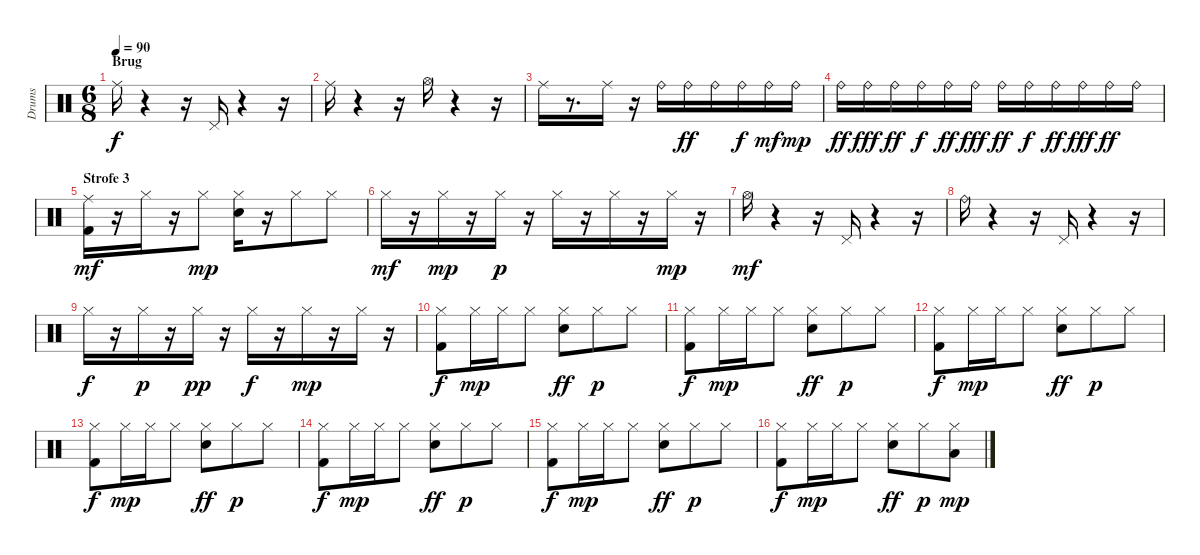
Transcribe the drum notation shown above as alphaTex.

\track ("Drums" "Drums") {instrument percussion}
\staff {score}
\articulation defaults
\ts (6 8)
\section ("" "Brug")
\tempo 90
\clef neutral
\ks c "Ride (middle)".16{dy f}
r.4 r.16 "Pedal Hi-Hat (hit)".16 r.4 r.16 |
"Ride (middle)".16 r.4 r.16 "Hi-Hat (open)".16 r.4 r.16 |
"Ride (middle)".16 r.8{d} "Ride (middle)".16 r.16 "Ride (bell)".16 "Ride (bell)".16{dy ff} "Ride (bell)".16 "Ride (bell)".16{dy f} "Ride (bell)".16{dy mf} "Ride (bell)".16{dy mp} |
"Ride (bell)".16{dy ff} "Ride (bell)".16{dy fff} "Ride (bell)".16{dy ff} "Ride (bell)".16{dy f} "Ride (bell)".16{dy ff} "Ride (bell)".16{dy fff} "Ride (bell)".16{dy ff} "Ride (bell)".16{dy f} "Ride (bell)".16{dy ff} "Ride (bell)".16{dy fff} "Ride (bell)".16{dy ff} "Ride (bell)".16 |
\section ("" "Strofe 3")
("Kick (hit) 2" "Ride (middle)").16{dy mf} r.16 "Hi-Hat (closed)".16 r.16 "Hi-Hat (closed)".8{dy mp} ("Hi-Hat (closed)" "Snare (hit) 2").16 r.16 "Hi-Hat (closed)".8 "Hi-Hat (closed)".8 |
"Hi-Hat (closed)".16{dy mf} r.16 "Hi-Hat (closed)".16{dy mp} r.16 "Hi-Hat (closed)".16{dy p} r.16 "Hi-Hat (closed)".16 r.16 "Hi-Hat (closed)".16 r.16 "Hi-Hat (closed)".16{dy mp} r.16 |
"Hi-Hat (open)".16{dy mf} r.4 r.16 "Pedal Hi-Hat (hit)".16 r.4 r.16 |
"Ride (bell)".16 r.4 r.16 "Pedal Hi-Hat (hit)".16 r.4 r.16 |
"Hi-Hat (closed)".16{dy f} r.16 "Hi-Hat (closed)".16{dy p} r.16 "Hi-Hat (closed)".16{dy pp} r.16 "Hi-Hat (closed)".16{dy f} r.16 "Hi-Hat (closed)".16{dy mp} r.16 "Hi-Hat (closed)".16 r.16 |
("Kick (hit) 2" "Hi-Hat (closed)").8{dy f} "Hi-Hat (closed)".16{dy mp} "Hi-Hat (closed)".16 "Hi-Hat (closed)".8 ("Hi-Hat (closed)" "Snare (hit) 2").8{dy ff} "Hi-Hat (closed)".8{dy p} "Hi-Hat (closed)".8 |
("Kick (hit) 2" "Hi-Hat (closed)").8{dy f} "Hi-Hat (closed)".16{dy mp} "Hi-Hat (closed)".16 "Hi-Hat (closed)".8 ("Hi-Hat (closed)" "Snare (hit) 2").8{dy ff} "Hi-Hat (closed)".8{dy p} "Hi-Hat (closed)".8 |
("Kick (hit) 2" "Hi-Hat (closed)").8{dy f} "Hi-Hat (closed)".16{dy mp} "Hi-Hat (closed)".16 "Hi-Hat (closed)".8 ("Hi-Hat (closed)" "Snare (hit) 2").8{dy ff} "Hi-Hat (closed)".8{dy p} "Hi-Hat (closed)".8 |
("Kick (hit) 2" "Hi-Hat (closed)").8{dy f} "Hi-Hat (closed)".16{dy mp} "Hi-Hat (closed)".16 "Hi-Hat (closed)".8 ("Hi-Hat (closed)" "Snare (hit) 2").8{dy ff} "Hi-Hat (closed)".8{dy p} "Hi-Hat (closed)".8 |
("Kick (hit) 2" "Hi-Hat (closed)").8{dy f} "Hi-Hat (closed)".16{dy mp} "Hi-Hat (closed)".16 "Hi-Hat (closed)".8 ("Hi-Hat (closed)" "Snare (hit) 2").8{dy ff} "Hi-Hat (closed)".8{dy p} "Hi-Hat (closed)".8 |
("Kick (hit) 2" "Hi-Hat (closed)").8{dy f} "Hi-Hat (closed)".16{dy mp} "Hi-Hat (closed)".16 "Hi-Hat (closed)".8 ("Hi-Hat (closed)" "Snare (hit) 2").8{dy ff} "Hi-Hat (closed)".8{dy p} "Hi-Hat (closed)".8 |
("Kick (hit) 2" "Hi-Hat (closed)").8{dy f} "Hi-Hat (closed)".16{dy mp} "Hi-Hat (closed)".16 "Hi-Hat (closed)".8 ("Hi-Hat (closed)" "Snare (hit) 2").8{dy ff} "Hi-Hat (closed)".8{dy p} ("Hi-Hat (closed)" "Low Tom (hit)").8{dy mp}
